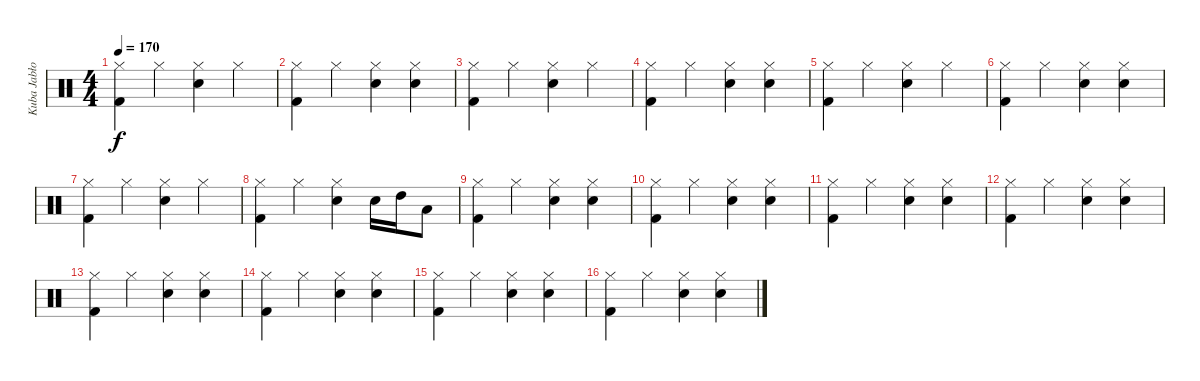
\track ("Kuba Jabłoński" "Kuba Jabło") {instrument percussion}
\staff {score}
\articulation defaults
\ts (4 4)
\tempo 170
\clef neutral
\ks c
("Kick (hit) 2" "Hi-Hat (closed)").4{dy f} "Hi-Hat (closed)".4 ("Snare (hit) 2" "Hi-Hat (closed)").4 "Hi-Hat (closed)".4 |
("Kick (hit) 2" "Hi-Hat (closed)").4 "Hi-Hat (closed)".4 ("Snare (hit) 2" "Hi-Hat (closed)").4 ("Snare (hit) 2" "Hi-Hat (closed)").4 |
("Kick (hit) 2" "Hi-Hat (closed)").4 "Hi-Hat (closed)".4 ("Snare (hit) 2" "Hi-Hat (closed)").4 "Hi-Hat (closed)".4 |
("Kick (hit) 2" "Hi-Hat (closed)").4 "Hi-Hat (closed)".4 ("Snare (hit) 2" "Hi-Hat (closed)").4 ("Snare (hit) 2" "Hi-Hat (closed)").4 |
("Kick (hit) 2" "Hi-Hat (closed)").4 "Hi-Hat (closed)".4 ("Snare (hit) 2" "Hi-Hat (closed)").4 "Hi-Hat (closed)".4 |
("Kick (hit) 2" "Hi-Hat (closed)").4 "Hi-Hat (closed)".4 ("Snare (hit) 2" "Hi-Hat (closed)").4 ("Snare (hit) 2" "Hi-Hat (closed)").4 |
("Kick (hit) 2" "Hi-Hat (closed)").4 "Hi-Hat (closed)".4 ("Snare (hit) 2" "Hi-Hat (closed)").4 "Hi-Hat (closed)".4 |
("Kick (hit) 2" "Hi-Hat (closed)").4 "Hi-Hat (closed)".4 ("Snare (hit) 2" "Hi-Hat (closed)").4 "Snare (hit) 2".16 "High Tom (hit)".16 "Low Tom (hit)".8 |
("Kick (hit) 2" "Hi-Hat (closed)").4 "Hi-Hat (closed)".4 ("Snare (hit) 2" "Hi-Hat (closed)").4 ("Snare (hit) 2" "Hi-Hat (closed)").4 |
("Kick (hit) 2" "Hi-Hat (closed)").4 "Hi-Hat (closed)".4 ("Snare (hit) 2" "Hi-Hat (closed)").4 ("Snare (hit) 2" "Hi-Hat (closed)").4 |
("Kick (hit) 2" "Hi-Hat (closed)").4 "Hi-Hat (closed)".4 ("Snare (hit) 2" "Hi-Hat (closed)").4 ("Snare (hit) 2" "Hi-Hat (closed)").4 |
("Kick (hit) 2" "Hi-Hat (closed)").4 "Hi-Hat (closed)".4 ("Snare (hit) 2" "Hi-Hat (closed)").4 ("Snare (hit) 2" "Hi-Hat (closed)").4 |
("Kick (hit) 2" "Hi-Hat (closed)").4 "Hi-Hat (closed)".4 ("Snare (hit) 2" "Hi-Hat (closed)").4 ("Snare (hit) 2" "Hi-Hat (closed)").4 |
("Kick (hit) 2" "Hi-Hat (closed)").4 "Hi-Hat (closed)".4 ("Snare (hit) 2" "Hi-Hat (closed)").4 ("Snare (hit) 2" "Hi-Hat (closed)").4 |
("Kick (hit) 2" "Hi-Hat (closed)").4 "Hi-Hat (closed)".4 ("Snare (hit) 2" "Hi-Hat (closed)").4 ("Snare (hit) 2" "Hi-Hat (closed)").4 |
("Kick (hit) 2" "Hi-Hat (closed)").4 "Hi-Hat (closed)".4 ("Snare (hit) 2" "Hi-Hat (closed)").4 ("Snare (hit) 2" "Hi-Hat (closed)").4
